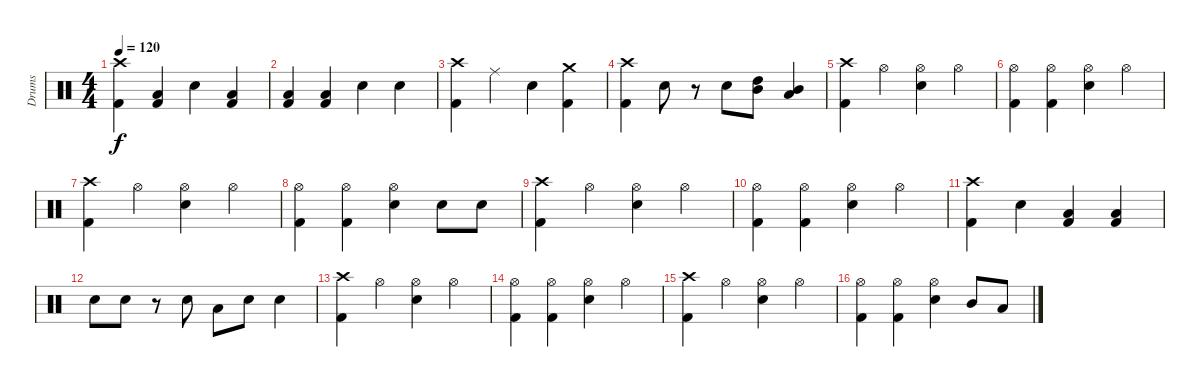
\track ("Drums" "Drums") {instrument percussion}
\staff {score}
\articulation defaults
\ts (4 4)
\tempo 120
\clef neutral
\ks c
("Kick (hit) 2" "Crash high (hit)").4{dy f} ("Kick (hit) 2" "Low Floor Tom (hit)").4 "Snare (hit) 2".4 ("Low Floor Tom (hit)" "Kick (hit) 2").4 |
("Low Floor Tom (hit)" "Kick (hit) 2").4 ("Low Floor Tom (hit)" "Kick (hit) 2").4 "Snare (hit) 2".4 "Snare (hit) 2".4 |
("Kick (hit) 2" "Crash high (hit)").4 "Ride (middle)".4 "Snare (hit) 2".4 ("Kick (hit) 2" "Crash medium (hit)").4 |
("Crash high (hit)" "Kick (hit) 2").4 "Snare (hit) 2".8 r.8 "Snare (hit) 2".8 ("High Tom (hit)" "Mid Tom (hit)").8 ("Mid Tom (hit)" "Low Tom (hit)").4 |
("Crash high (hit)" "Kick (hit) 2").4 "Hi-Hat (open)".4 ("Hi-Hat (open)" "Snare (hit) 2").4 "Hi-Hat (open)".4 |
("Hi-Hat (open)" "Kick (hit) 2").4 ("Hi-Hat (open)" "Kick (hit) 2").4 ("Hi-Hat (open)" "Snare (hit) 2").4 "Hi-Hat (open)".4 |
("Crash high (hit)" "Kick (hit) 2").4 "Hi-Hat (open)".4 ("Hi-Hat (open)" "Snare (hit) 2").4 "Hi-Hat (open)".4 |
("Hi-Hat (open)" "Kick (hit) 2").4 ("Hi-Hat (open)" "Kick (hit) 2").4 ("Hi-Hat (open)" "Snare (hit) 2").4 "Snare (hit) 2".8 "Snare (hit) 2".8 |
("Crash high (hit)" "Kick (hit) 2").4 "Hi-Hat (open)".4 ("Hi-Hat (open)" "Snare (hit) 2").4 "Hi-Hat (open)".4 |
("Hi-Hat (open)" "Kick (hit) 2").4 ("Hi-Hat (open)" "Kick (hit) 2").4 ("Hi-Hat (open)" "Snare (hit) 2").4 "Hi-Hat (open)".4 |
("Crash high (hit)" "Kick (hit) 2").4 "Snare (hit) 2".4 ("Low Tom (hit)" "Kick (hit) 2").4 ("Low Floor Tom (hit)" "Kick (hit) 2").4 |
"Snare (hit) 2".8 "Snare (hit) 2".8 r.8 "Snare (hit) 2".8 "Low Tom (hit)".8 "Snare (hit) 2".8 "Snare (hit) 2".4 |
("Crash high (hit)" "Kick (hit) 2").4 "Hi-Hat (open)".4 ("Hi-Hat (open)" "Snare (hit) 2").4 "Hi-Hat (open)".4 |
("Hi-Hat (open)" "Kick (hit) 2").4 ("Hi-Hat (open)" "Kick (hit) 2").4 ("Hi-Hat (open)" "Snare (hit) 2").4 "Hi-Hat (open)".4 |
("Crash high (hit)" "Kick (hit) 2").4 "Hi-Hat (open)".4 ("Hi-Hat (open)" "Snare (hit) 2").4 "Hi-Hat (open)".4 |
("Hi-Hat (open)" "Kick (hit) 2").4 ("Hi-Hat (open)" "Kick (hit) 2").4 ("Hi-Hat (open)" "Snare (hit) 2").4 "Mid Tom (hit)".8 "Low Tom (hit)".8
